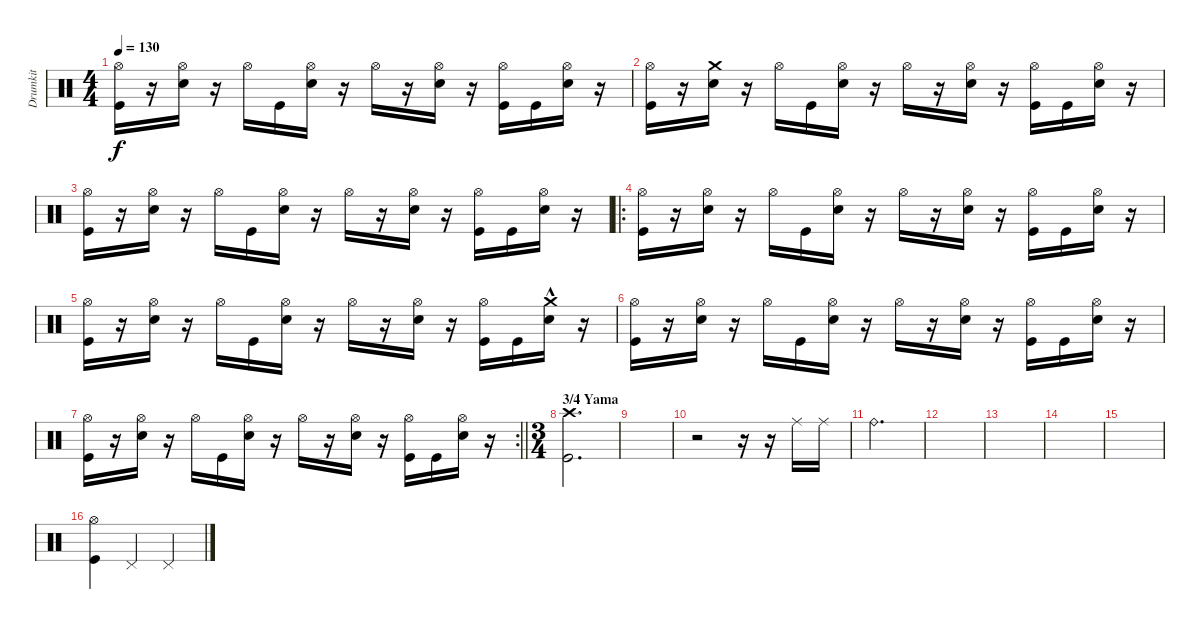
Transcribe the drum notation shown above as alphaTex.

\track ("Drumkit" "Drumkit") {instrument percussion}
\staff {score}
\articulation defaults
\ts (4 4)
\tempo 130
\clef neutral
\ks c
("Hi-Hat (open)" "Kick (hit)").16{dy f} r.16 ("Hi-Hat (open)" "Snare (hit) 2").16 r.16 "Hi-Hat (open)".16 "Kick (hit)".16 ("Hi-Hat (open)" "Snare (hit) 2").16 r.16 "Hi-Hat (open)".16 r.16 ("Hi-Hat (open)" "Snare (hit) 2").16 r.16 ("Hi-Hat (open)" "Kick (hit)").16 "Kick (hit)".16 ("Hi-Hat (open)" "Snare (hit) 2").16 r.16 |
("Hi-Hat (open)" "Kick (hit)").16 r.16 ("Snare (hit) 2" "Crash medium (hit)").16 r.16 "Hi-Hat (open)".16 "Kick (hit)".16 ("Hi-Hat (open)" "Snare (hit) 2").16 r.16 "Hi-Hat (open)".16 r.16 ("Hi-Hat (open)" "Snare (hit) 2").16 r.16 ("Hi-Hat (open)" "Kick (hit)").16 "Kick (hit)".16 ("Hi-Hat (open)" "Snare (hit) 2").16 r.16 |
("Hi-Hat (open)" "Kick (hit)").16 r.16 ("Hi-Hat (open)" "Snare (hit) 2").16 r.16 "Hi-Hat (open)".16 "Kick (hit)".16 ("Hi-Hat (open)" "Snare (hit) 2").16 r.16 "Hi-Hat (open)".16 r.16 ("Hi-Hat (open)" "Snare (hit) 2").16 r.16 ("Hi-Hat (open)" "Kick (hit)").16 "Kick (hit)".16 ("Hi-Hat (open)" "Snare (hit) 2").16 r.16 |
\ro
("Hi-Hat (open)" "Kick (hit)").16 r.16 ("Hi-Hat (open)" "Snare (hit) 2").16 r.16 "Hi-Hat (open)".16 "Kick (hit)".16 ("Hi-Hat (open)" "Snare (hit) 2").16 r.16 "Hi-Hat (open)".16 r.16 ("Hi-Hat (open)" "Snare (hit) 2").16 r.16 ("Hi-Hat (open)" "Kick (hit)").16 "Kick (hit)".16 ("Hi-Hat (open)" "Snare (hit) 2").16 r.16 |
("Hi-Hat (open)" "Kick (hit)").16 r.16 ("Hi-Hat (open)" "Snare (hit) 2").16 r.16 "Hi-Hat (open)".16 "Kick (hit)".16 ("Hi-Hat (open)" "Snare (hit) 2").16 r.16 "Hi-Hat (open)".16 r.16 ("Hi-Hat (open)" "Snare (hit) 2").16 r.16 ("Hi-Hat (open)" "Kick (hit)").16 "Kick (hit)".16 ("Snare (hit) 2"{hac} "Crash medium (hit)"{hac}).16 r.16 |
("Hi-Hat (open)" "Kick (hit)").16 r.16 ("Hi-Hat (open)" "Snare (hit) 2").16 r.16 "Hi-Hat (open)".16 "Kick (hit)".16 ("Hi-Hat (open)" "Snare (hit) 2").16 r.16 "Hi-Hat (open)".16 r.16 ("Hi-Hat (open)" "Snare (hit) 2").16 r.16 ("Hi-Hat (open)" "Kick (hit)").16 "Kick (hit)".16 ("Hi-Hat (open)" "Snare (hit) 2").16 r.16 |
\rc 2
\barLineRight lightlight
("Hi-Hat (open)" "Kick (hit)").16 r.16 ("Hi-Hat (open)" "Snare (hit) 2").16 r.16 "Hi-Hat (open)".16 "Kick (hit)".16 ("Hi-Hat (open)" "Snare (hit) 2").16 r.16 "Hi-Hat (open)".16 r.16 ("Hi-Hat (open)" "Snare (hit) 2").16 r.16 ("Hi-Hat (open)" "Kick (hit)").16 "Kick (hit)".16 ("Hi-Hat (open)" "Snare (hit) 2").16 r.16 |
\ts (3 4)
\section ("" "3/4 Yama")
("Crash high (hit)" "Kick (hit)").2{d} |
|
r.2 r.16 r.16 "Ride (middle)".16 "Ride (middle)".16 |
"Ride (bell)".2{d} |
|
|
|
|
("Hi-Hat (open)" "Kick (hit)").4 "Pedal Hi-Hat (hit)".4 "Pedal Hi-Hat (hit)".4
